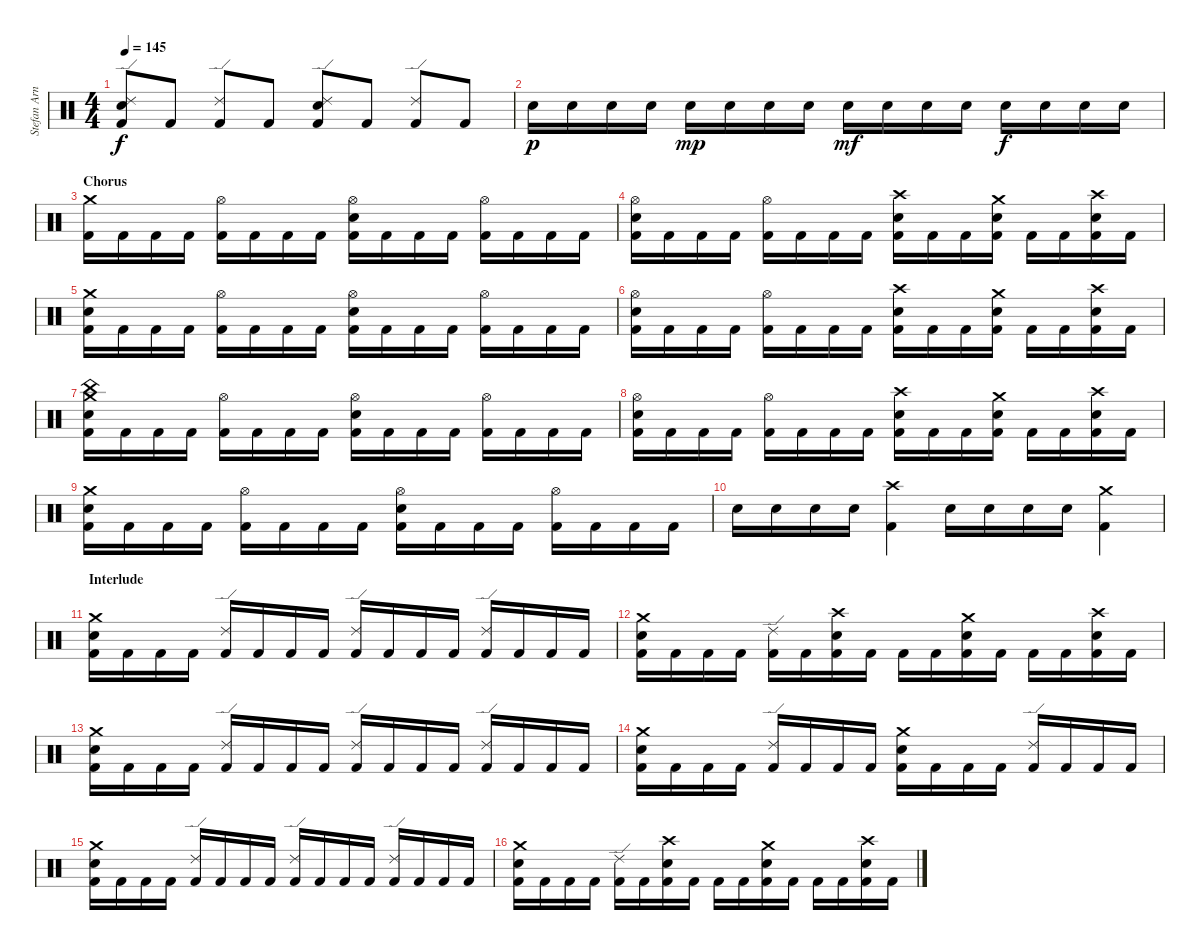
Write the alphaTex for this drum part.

\track ("Stefan Arnold" "Stefan Arn") {instrument percussion}
\staff {score}
\articulation defaults
\ts (4 4)
\tempo 145
\clef neutral
\ks c
("Ride (edge) 2" "Electric Snare (hit)" "Kick (hit) 2").8{dy f} "Kick (hit) 2".8 ("Ride (edge) 2" "Kick (hit) 2").8 "Kick (hit) 2".8 ("Ride (edge) 2" "Electric Snare (hit)" "Kick (hit) 2").8 "Kick (hit) 2".8 ("Ride (edge) 2" "Kick (hit) 2").8 "Kick (hit) 2".8 |
"Electric Snare (hit)".16{dy p} "Electric Snare (hit)".16 "Electric Snare (hit)".16 "Electric Snare (hit)".16 "Electric Snare (hit)".16{dy mp} "Electric Snare (hit)".16 "Electric Snare (hit)".16 "Electric Snare (hit)".16 "Electric Snare (hit)".16{dy mf} "Electric Snare (hit)".16 "Electric Snare (hit)".16 "Electric Snare (hit)".16 "Electric Snare (hit)".16{dy f} "Electric Snare (hit)".16 "Electric Snare (hit)".16 "Electric Snare (hit)".16 |
\section ("" "Chorus")
("Crash medium (hit)" "Kick (hit) 2").16 "Kick (hit) 2".16 "Kick (hit) 2".16 "Kick (hit) 2".16 ("Hi-Hat (open)" "Kick (hit) 2").16 "Kick (hit) 2".16 "Kick (hit) 2".16 "Kick (hit) 2".16 ("Hi-Hat (open)" "Electric Snare (hit)" "Kick (hit) 2").16 "Kick (hit) 2".16 "Kick (hit) 2".16 "Kick (hit) 2".16 ("Hi-Hat (open)" "Kick (hit) 2").16 "Kick (hit) 2".16 "Kick (hit) 2".16 "Kick (hit) 2".16 |
("Hi-Hat (open)" "Electric Snare (hit)" "Kick (hit) 2").16 "Kick (hit) 2".16 "Kick (hit) 2".16 "Kick (hit) 2".16 ("Hi-Hat (open)" "Kick (hit) 2").16 "Kick (hit) 2".16 "Kick (hit) 2".16 "Kick (hit) 2".16 ("Crash high (hit)" "Electric Snare (hit)" "Kick (hit) 2").16 "Kick (hit) 2".16 "Kick (hit) 2".16 ("Crash medium (hit)" "Electric Snare (hit)" "Kick (hit) 2").16 "Kick (hit) 2".16 "Kick (hit) 2".16 ("Crash high (hit)" "Electric Snare (hit)" "Kick (hit) 2").16 "Kick (hit) 2".16 |
("Crash medium (hit)" "Electric Snare (hit)" "Kick (hit) 2").16 "Kick (hit) 2".16 "Kick (hit) 2".16 "Kick (hit) 2".16 ("Hi-Hat (open)" "Kick (hit) 2").16 "Kick (hit) 2".16 "Kick (hit) 2".16 "Kick (hit) 2".16 ("Hi-Hat (open)" "Electric Snare (hit)" "Kick (hit) 2").16 "Kick (hit) 2".16 "Kick (hit) 2".16 "Kick (hit) 2".16 ("Hi-Hat (open)" "Kick (hit) 2").16 "Kick (hit) 2".16 "Kick (hit) 2".16 "Kick (hit) 2".16 |
("Hi-Hat (open)" "Electric Snare (hit)" "Kick (hit) 2").16 "Kick (hit) 2".16 "Kick (hit) 2".16 "Kick (hit) 2".16 ("Hi-Hat (open)" "Kick (hit) 2").16 "Kick (hit) 2".16 "Kick (hit) 2".16 "Kick (hit) 2".16 ("Crash high (hit)" "Electric Snare (hit)" "Kick (hit) 2").16 "Kick (hit) 2".16 "Kick (hit) 2".16 ("Crash medium (hit)" "Electric Snare (hit)" "Kick (hit) 2").16 "Kick (hit) 2".16 "Kick (hit) 2".16 ("Crash high (hit)" "Electric Snare (hit)" "Kick (hit) 2").16 "Kick (hit) 2".16 |
("Crash medium (hit)" "China (hit)" "Electric Snare (hit)" "Kick (hit) 2").16 "Kick (hit) 2".16 "Kick (hit) 2".16 "Kick (hit) 2".16 ("Hi-Hat (open)" "Kick (hit) 2").16 "Kick (hit) 2".16 "Kick (hit) 2".16 "Kick (hit) 2".16 ("Hi-Hat (open)" "Electric Snare (hit)" "Kick (hit) 2").16 "Kick (hit) 2".16 "Kick (hit) 2".16 "Kick (hit) 2".16 ("Hi-Hat (open)" "Kick (hit) 2").16 "Kick (hit) 2".16 "Kick (hit) 2".16 "Kick (hit) 2".16 |
("Hi-Hat (open)" "Electric Snare (hit)" "Kick (hit) 2").16 "Kick (hit) 2".16 "Kick (hit) 2".16 "Kick (hit) 2".16 ("Hi-Hat (open)" "Kick (hit) 2").16 "Kick (hit) 2".16 "Kick (hit) 2".16 "Kick (hit) 2".16 ("Crash high (hit)" "Electric Snare (hit)" "Kick (hit) 2").16 "Kick (hit) 2".16 "Kick (hit) 2".16 ("Crash medium (hit)" "Electric Snare (hit)" "Kick (hit) 2").16 "Kick (hit) 2".16 "Kick (hit) 2".16 ("Crash high (hit)" "Electric Snare (hit)" "Kick (hit) 2").16 "Kick (hit) 2".16 |
("Crash medium (hit)" "Electric Snare (hit)" "Kick (hit) 2").16 "Kick (hit) 2".16 "Kick (hit) 2".16 "Kick (hit) 2".16 ("Hi-Hat (open)" "Kick (hit) 2").16 "Kick (hit) 2".16 "Kick (hit) 2".16 "Kick (hit) 2".16 ("Hi-Hat (open)" "Electric Snare (hit)" "Kick (hit) 2").16 "Kick (hit) 2".16 "Kick (hit) 2".16 "Kick (hit) 2".16 ("Hi-Hat (open)" "Kick (hit) 2").16 "Kick (hit) 2".16 "Kick (hit) 2".16 "Kick (hit) 2".16 |
"Electric Snare (hit)".16 "Electric Snare (hit)".16 "Electric Snare (hit)".16 "Electric Snare (hit)".16 ("Crash high (hit)" "Kick (hit) 2").4 "Electric Snare (hit)".16 "Electric Snare (hit)".16 "Electric Snare (hit)".16 "Electric Snare (hit)".16 ("Crash medium (hit)" "Kick (hit) 2").4 |
\section ("" "Interlude")
("Crash medium (hit)" "Electric Snare (hit)" "Kick (hit) 2").16 "Kick (hit) 2".16 "Kick (hit) 2".16 "Kick (hit) 2".16 ("Ride (edge) 2" "Kick (hit) 2").16 "Kick (hit) 2".16 "Kick (hit) 2".16 "Kick (hit) 2".16 ("Ride (edge) 2" "Kick (hit) 2").16 "Kick (hit) 2".16 "Kick (hit) 2".16 "Kick (hit) 2".16 ("Ride (edge) 2" "Kick (hit) 2").16 "Kick (hit) 2".16 "Kick (hit) 2".16 "Kick (hit) 2".16 |
("Crash medium (hit)" "Electric Snare (hit)" "Kick (hit) 2").16 "Kick (hit) 2".16 "Kick (hit) 2".16 "Kick (hit) 2".16 ("Ride (edge) 2" "Kick (hit) 2").16 "Kick (hit) 2".16 ("Crash high (hit)" "Electric Snare (hit)" "Kick (hit) 2").16 "Kick (hit) 2".16 "Kick (hit) 2".16 "Kick (hit) 2".16 ("Crash medium (hit)" "Electric Snare (hit)" "Kick (hit) 2").16 "Kick (hit) 2".16 "Kick (hit) 2".16 "Kick (hit) 2".16 ("Crash high (hit)" "Electric Snare (hit)" "Kick (hit) 2").16 "Kick (hit) 2".16 |
("Crash medium (hit)" "Electric Snare (hit)" "Kick (hit) 2").16 "Kick (hit) 2".16 "Kick (hit) 2".16 "Kick (hit) 2".16 ("Ride (edge) 2" "Kick (hit) 2").16 "Kick (hit) 2".16 "Kick (hit) 2".16 "Kick (hit) 2".16 ("Ride (edge) 2" "Kick (hit) 2").16 "Kick (hit) 2".16 "Kick (hit) 2".16 "Kick (hit) 2".16 ("Ride (edge) 2" "Kick (hit) 2").16 "Kick (hit) 2".16 "Kick (hit) 2".16 "Kick (hit) 2".16 |
("Crash medium (hit)" "Electric Snare (hit)" "Kick (hit) 2").16 "Kick (hit) 2".16 "Kick (hit) 2".16 "Kick (hit) 2".16 ("Ride (edge) 2" "Kick (hit) 2").16 "Kick (hit) 2".16 "Kick (hit) 2".16 "Kick (hit) 2".16 ("Crash medium (hit)" "Electric Snare (hit)" "Kick (hit) 2").16 "Kick (hit) 2".16 "Kick (hit) 2".16 "Kick (hit) 2".16 ("Ride (edge) 2" "Kick (hit) 2").16 "Kick (hit) 2".16 "Kick (hit) 2".16 "Kick (hit) 2".16 |
("Crash medium (hit)" "Electric Snare (hit)" "Kick (hit) 2").16 "Kick (hit) 2".16 "Kick (hit) 2".16 "Kick (hit) 2".16 ("Ride (edge) 2" "Kick (hit) 2").16 "Kick (hit) 2".16 "Kick (hit) 2".16 "Kick (hit) 2".16 ("Ride (edge) 2" "Kick (hit) 2").16 "Kick (hit) 2".16 "Kick (hit) 2".16 "Kick (hit) 2".16 ("Ride (edge) 2" "Kick (hit) 2").16 "Kick (hit) 2".16 "Kick (hit) 2".16 "Kick (hit) 2".16 |
("Crash medium (hit)" "Electric Snare (hit)" "Kick (hit) 2").16 "Kick (hit) 2".16 "Kick (hit) 2".16 "Kick (hit) 2".16 ("Ride (edge) 2" "Kick (hit) 2").16 "Kick (hit) 2".16 ("Crash high (hit)" "Electric Snare (hit)" "Kick (hit) 2").16 "Kick (hit) 2".16 "Kick (hit) 2".16 "Kick (hit) 2".16 ("Crash medium (hit)" "Electric Snare (hit)" "Kick (hit) 2").16 "Kick (hit) 2".16 "Kick (hit) 2".16 "Kick (hit) 2".16 ("Crash high (hit)" "Electric Snare (hit)" "Kick (hit) 2").16 "Kick (hit) 2".16
